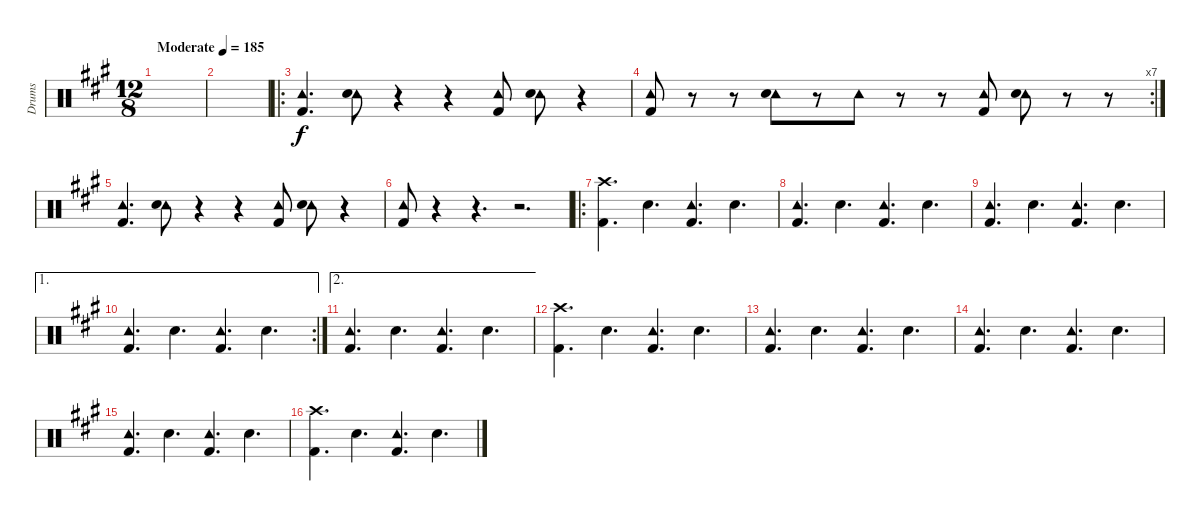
\track ("Drums" "Drums") {instrument percussion}
\staff {score}
\articulation defaults
\ts (12 8)
\tempo (185 "Moderate")
\clef neutral
\ks a
|
|
\ro
("Tambourine (hit)" "Kick (hit) 2").4{d} ("Tambourine (hit)" "Snare (hit) 2").8 r.4 r.4 ("Tambourine (hit)" "Kick (hit) 2").8 ("Tambourine (hit)" "Snare (hit) 2").8 r.4 |
\rc 7
("Tambourine (hit)" "Kick (hit) 2").8 r.8 r.8 ("Tambourine (hit)" "Snare (hit) 2").8 r.8 "Tambourine (hit)".8 r.8 r.8 ("Tambourine (hit)" "Kick (hit) 2").8 ("Tambourine (hit)" "Snare (hit) 2").8 r.8 r.8 |
("Tambourine (hit)" "Kick (hit) 2").4{d} ("Tambourine (hit)" "Snare (hit) 2").8 r.4 r.4 ("Tambourine (hit)" "Kick (hit) 2").8 ("Tambourine (hit)" "Snare (hit) 2").8 r.4 |
("Tambourine (hit)" "Kick (hit) 2").8 r.4 r.4{d} r.2{d} |
\ro
("Crash high (hit)" "Kick (hit) 2").4{d} "Snare (hit) 2".4{d} ("Tambourine (hit)" "Kick (hit) 2").4{d} "Snare (hit) 2".4{d} |
("Tambourine (hit)" "Kick (hit) 2").4{d} "Snare (hit) 2".4{d} ("Tambourine (hit)" "Kick (hit) 2").4{d} "Snare (hit) 2".4{d} |
("Tambourine (hit)" "Kick (hit) 2").4{d} "Snare (hit) 2".4{d} ("Tambourine (hit)" "Kick (hit) 2").4{d} "Snare (hit) 2".4{d} |
\ae 1
\rc 2
("Tambourine (hit)" "Kick (hit) 2").4{d} "Snare (hit) 2".4{d} ("Tambourine (hit)" "Kick (hit) 2").4{d} "Snare (hit) 2".4{d} |
\ae 2
("Tambourine (hit)" "Kick (hit) 2").4{d} "Snare (hit) 2".4{d} ("Tambourine (hit)" "Kick (hit) 2").4{d} "Snare (hit) 2".4{d} |
("Crash high (hit)" "Kick (hit) 2").4{d} "Snare (hit) 2".4{d} ("Tambourine (hit)" "Kick (hit) 2").4{d} "Snare (hit) 2".4{d} |
("Tambourine (hit)" "Kick (hit) 2").4{d} "Snare (hit) 2".4{d} ("Tambourine (hit)" "Kick (hit) 2").4{d} "Snare (hit) 2".4{d} |
("Tambourine (hit)" "Kick (hit) 2").4{d} "Snare (hit) 2".4{d} ("Tambourine (hit)" "Kick (hit) 2").4{d} "Snare (hit) 2".4{d} |
("Tambourine (hit)" "Kick (hit) 2").4{d} "Snare (hit) 2".4{d} ("Tambourine (hit)" "Kick (hit) 2").4{d} "Snare (hit) 2".4{d} |
("Crash high (hit)" "Kick (hit) 2").4{d} "Snare (hit) 2".4{d} ("Tambourine (hit)" "Kick (hit) 2").4{d} "Snare (hit) 2".4{d}
